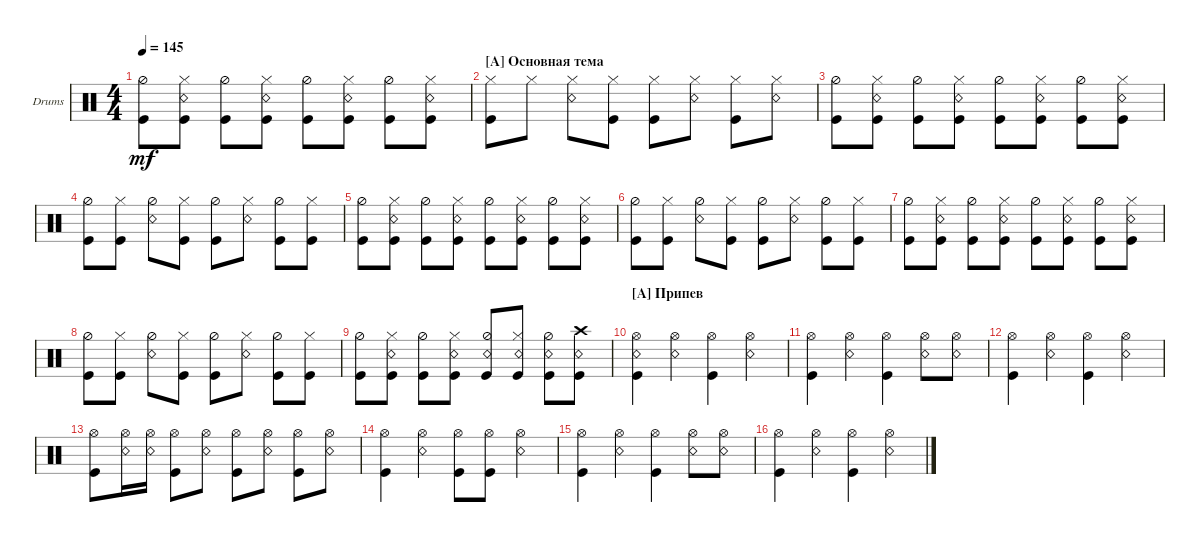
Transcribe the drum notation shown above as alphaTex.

\defaultSystemsLayout 4
\bracketExtendMode groupsimilarinstruments
\firstSystemTrackNameOrientation horizontal
\otherSystemsTrackNameOrientation horizontal
\track ("Drumkit" "Drums") {instrument percussion}
\staff {score}
\articulation defaults
\ts (4 4)
\tempo 145
\clef neutral
\ks c
("Kick (hit)" "Hi-Hat (half)").8{dy mf} ("Kick (hit)" "Hi-Hat (closed)" "Snare (rim shot)").8 ("Kick (hit)" "Hi-Hat (half)").8 ("Kick (hit)" "Hi-Hat (closed)" "Snare (rim shot)").8 ("Kick (hit)" "Hi-Hat (half)").8 ("Kick (hit)" "Hi-Hat (closed)" "Snare (rim shot)").8 ("Kick (hit)" "Hi-Hat (half)").8 ("Kick (hit)" "Hi-Hat (closed)" "Snare (rim shot)").8 |
\section ("A" "Основная тема")
("Kick (hit)" "Hi-Hat (closed)").8 "Hi-Hat (closed)".8 ("Snare (rim shot)" "Hi-Hat (closed)").8 ("Kick (hit)" "Hi-Hat (closed)").8 ("Kick (hit)" "Hi-Hat (closed)").8 ("Snare (rim shot)" "Hi-Hat (closed)").8 ("Kick (hit)" "Hi-Hat (closed)").8 ("Snare (rim shot)" "Hi-Hat (closed)").8 |
("Kick (hit)" "Hi-Hat (half)").8 ("Kick (hit)" "Hi-Hat (closed)" "Snare (rim shot)").8 ("Kick (hit)" "Hi-Hat (half)").8 ("Kick (hit)" "Hi-Hat (closed)" "Snare (rim shot)").8 ("Kick (hit)" "Hi-Hat (half)").8 ("Kick (hit)" "Hi-Hat (closed)" "Snare (rim shot)").8 ("Kick (hit)" "Hi-Hat (half)").8 ("Kick (hit)" "Hi-Hat (closed)" "Snare (rim shot)").8 |
("Hi-Hat (half)" "Kick (hit)").8 ("Hi-Hat (closed)" "Kick (hit)").8 ("Hi-Hat (half)" "Snare (rim shot)").8 ("Hi-Hat (closed)" "Kick (hit)").8 ("Hi-Hat (half)" "Kick (hit)").8 ("Hi-Hat (closed)" "Snare (rim shot)").8 ("Hi-Hat (half)" "Kick (hit)").8 ("Hi-Hat (closed)" "Kick (hit)").8 |
("Kick (hit)" "Hi-Hat (half)").8 ("Kick (hit)" "Hi-Hat (closed)" "Snare (rim shot)").8 ("Kick (hit)" "Hi-Hat (half)").8 ("Kick (hit)" "Hi-Hat (closed)" "Snare (rim shot)").8 ("Kick (hit)" "Hi-Hat (half)").8 ("Kick (hit)" "Hi-Hat (closed)" "Snare (rim shot)").8 ("Kick (hit)" "Hi-Hat (half)").8 ("Kick (hit)" "Hi-Hat (closed)" "Snare (rim shot)").8 |
("Hi-Hat (half)" "Kick (hit)").8 ("Hi-Hat (closed)" "Kick (hit)").8 ("Hi-Hat (half)" "Snare (rim shot)").8 ("Hi-Hat (closed)" "Kick (hit)").8 ("Hi-Hat (half)" "Kick (hit)").8 ("Hi-Hat (closed)" "Snare (rim shot)").8 ("Hi-Hat (half)" "Kick (hit)").8 ("Hi-Hat (closed)" "Kick (hit)").8 |
("Kick (hit)" "Hi-Hat (half)").8 ("Kick (hit)" "Hi-Hat (closed)" "Snare (rim shot)").8 ("Kick (hit)" "Hi-Hat (half)").8 ("Kick (hit)" "Hi-Hat (closed)" "Snare (rim shot)").8 ("Kick (hit)" "Hi-Hat (half)").8 ("Kick (hit)" "Hi-Hat (closed)" "Snare (rim shot)").8 ("Kick (hit)" "Hi-Hat (half)").8 ("Kick (hit)" "Hi-Hat (closed)" "Snare (rim shot)").8 |
("Hi-Hat (half)" "Kick (hit)").8 ("Hi-Hat (closed)" "Kick (hit)").8 ("Hi-Hat (half)" "Snare (rim shot)").8 ("Hi-Hat (closed)" "Kick (hit)").8 ("Hi-Hat (half)" "Kick (hit)").8 ("Hi-Hat (closed)" "Snare (rim shot)").8 ("Hi-Hat (half)" "Kick (hit)").8 ("Hi-Hat (closed)" "Kick (hit)").8 |
("Kick (hit)" "Hi-Hat (half)").8 ("Kick (hit)" "Hi-Hat (closed)" "Snare (rim shot)").8 ("Kick (hit)" "Hi-Hat (half)").8 ("Kick (hit)" "Hi-Hat (closed)" "Snare (rim shot)").8 ("Kick (hit)" "Hi-Hat (half)" "Snare (rim shot)").8 ("Kick (hit)" "Hi-Hat (closed)" "Snare (rim shot)").8 ("Kick (hit)" "Hi-Hat (half)" "Snare (rim shot)").8 ("Snare (rim shot)" "Crash high (hit)" "Kick (hit)").8 |
\section ("A" "Припев")
("Hi-Hat (open)" "Snare (rim shot)" "Kick (hit)").4 ("Snare (rim shot)" "Hi-Hat (open)").4 ("Kick (hit)" "Hi-Hat (open)").4 ("Snare (rim shot)" "Hi-Hat (open)").4 |
("Kick (hit)" "Hi-Hat (open)").4 ("Snare (rim shot)" "Hi-Hat (open)").4 ("Kick (hit)" "Hi-Hat (open)").4 ("Snare (rim shot)" "Hi-Hat (open)").8 ("Snare (rim shot)" "Hi-Hat (open)").8 |
("Kick (hit)" "Hi-Hat (open)").4 ("Snare (rim shot)" "Hi-Hat (open)").4 ("Kick (hit)" "Hi-Hat (open)").4 ("Snare (rim shot)" "Hi-Hat (open)").4 |
("Kick (hit)" "Hi-Hat (open)").8 ("Snare (rim shot)" "Hi-Hat (open)").16 ("Snare (rim shot)" "Hi-Hat (open)").16 ("Kick (hit)" "Hi-Hat (open)").8 ("Snare (rim shot)" "Hi-Hat (open)").8 ("Kick (hit)" "Hi-Hat (open)").8 ("Snare (rim shot)" "Hi-Hat (open)").8 ("Kick (hit)" "Hi-Hat (open)").8 ("Snare (rim shot)" "Hi-Hat (open)").8 |
("Kick (hit)" "Hi-Hat (open)").4 ("Snare (rim shot)" "Hi-Hat (open)").4 ("Kick (hit)" "Hi-Hat (open)").8 ("Kick (hit)" "Hi-Hat (open)").8 ("Snare (rim shot)" "Hi-Hat (open)").4 |
("Kick (hit)" "Hi-Hat (open)").4 ("Snare (rim shot)" "Hi-Hat (open)").4 ("Kick (hit)" "Hi-Hat (open)").4 ("Snare (rim shot)" "Hi-Hat (open)").8 ("Snare (rim shot)" "Hi-Hat (open)").8 |
("Kick (hit)" "Hi-Hat (open)").4 ("Snare (rim shot)" "Hi-Hat (open)").4 ("Kick (hit)" "Hi-Hat (open)").4 ("Snare (rim shot)" "Hi-Hat (open)").4
